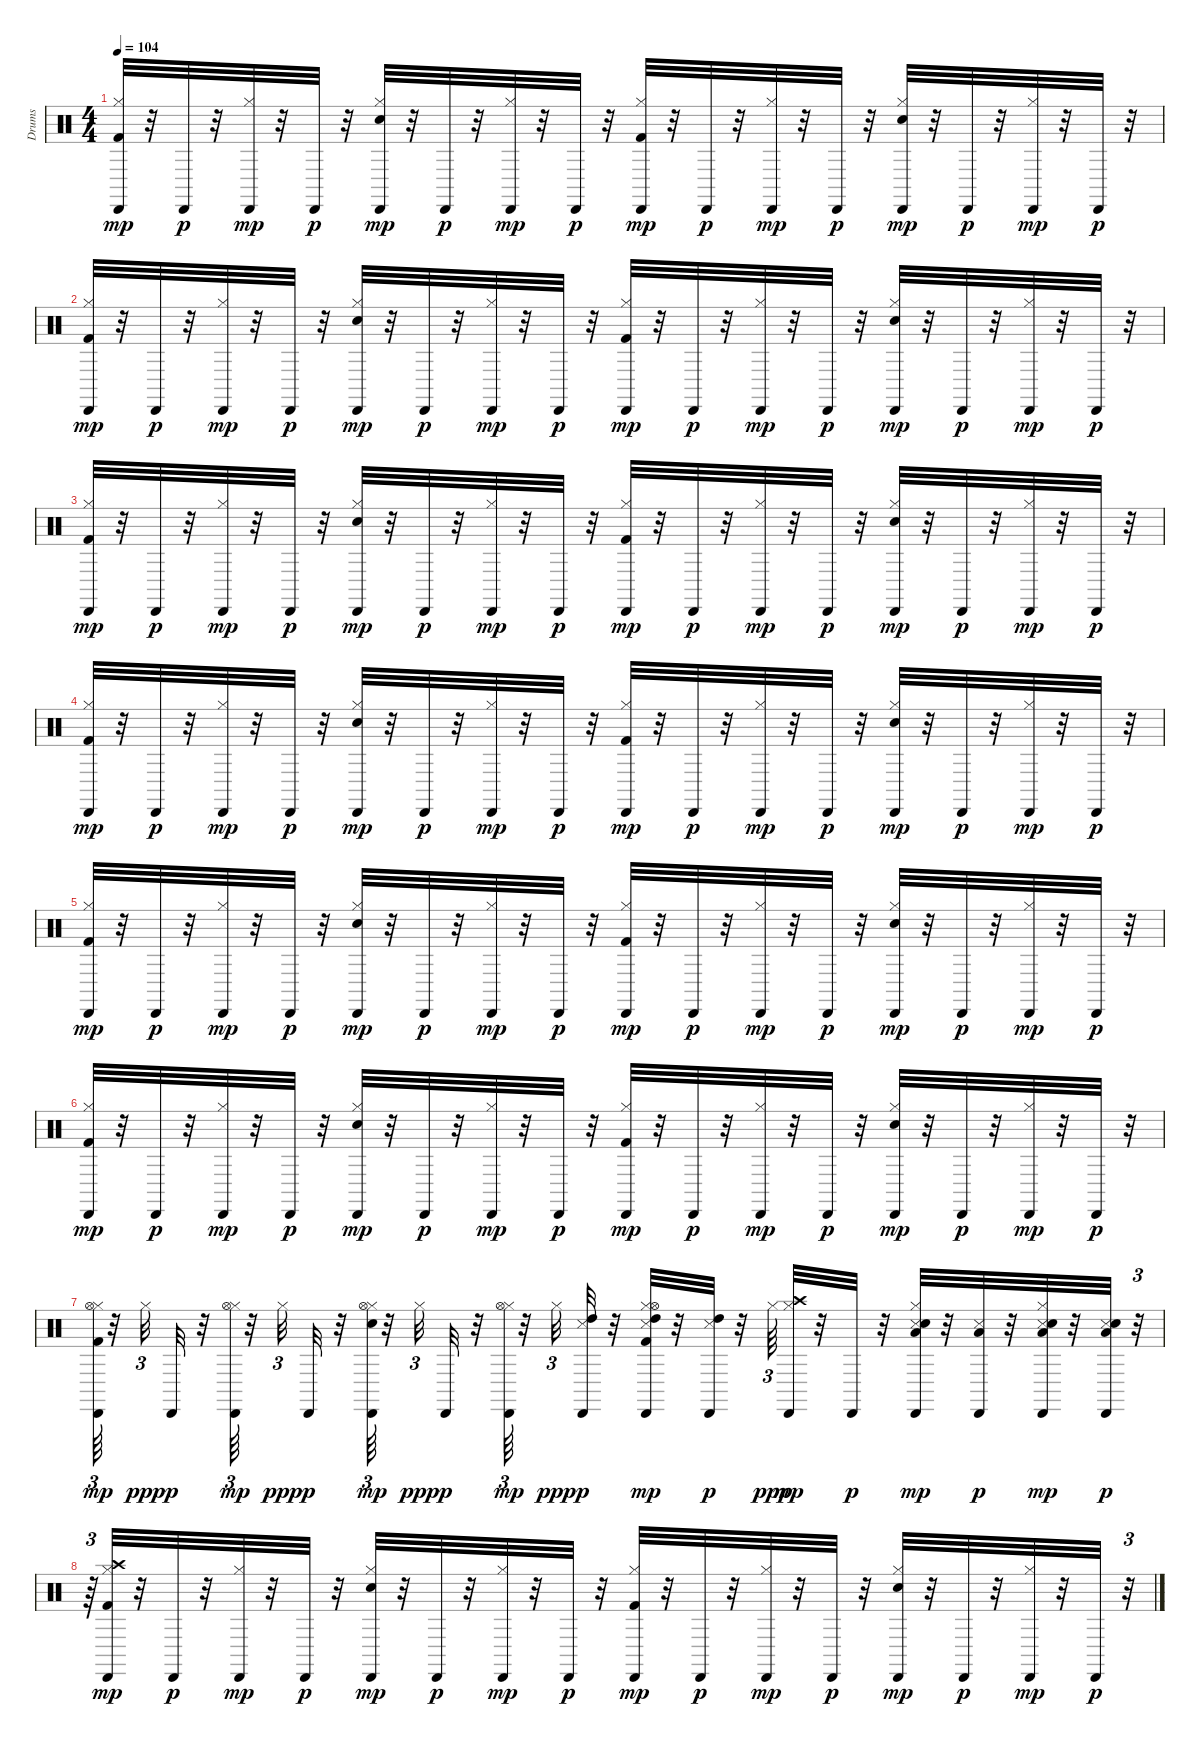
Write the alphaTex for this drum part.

\track ("Drums               " "Drums     ") {instrument percussion}
\staff {score}
\articulation defaults
\ts (4 4)
\tempo 104
\clef neutral
\ks c
("Kick (hit) 2" "Hi-Hat (closed)" "Cabasa (hit)").32{dy mp} r.32 "Cabasa (hit)".32{dy p} r.32 ("Hi-Hat (closed)" "Cabasa (hit)").32{dy mp} r.32 "Cabasa (hit)".32{dy p} r.32 ("Snare (hit) 2" "Hi-Hat (closed)" "Cabasa (hit)").32{dy mp} r.32 "Cabasa (hit)".32{dy p} r.32 ("Hi-Hat (closed)" "Cabasa (hit)").32{dy mp} r.32 "Cabasa (hit)".32{dy p} r.32 ("Kick (hit) 2" "Hi-Hat (closed)" "Cabasa (hit)").32{dy mp} r.32 "Cabasa (hit)".32{dy p} r.32 ("Hi-Hat (closed)" "Cabasa (hit)").32{dy mp} r.32 "Cabasa (hit)".32{dy p} r.32 ("Snare (hit) 2" "Hi-Hat (closed)" "Cabasa (hit)").32{dy mp} r.32 "Cabasa (hit)".32{dy p} r.32 ("Hi-Hat (closed)" "Cabasa (hit)").32{dy mp} r.32 "Cabasa (hit)".32{dy p} r.32 |
("Kick (hit) 2" "Hi-Hat (closed)" "Cabasa (hit)").32{dy mp} r.32 "Cabasa (hit)".32{dy p} r.32 ("Hi-Hat (closed)" "Cabasa (hit)").32{dy mp} r.32 "Cabasa (hit)".32{dy p} r.32 ("Snare (hit) 2" "Hi-Hat (closed)" "Cabasa (hit)").32{dy mp} r.32 "Cabasa (hit)".32{dy p} r.32 ("Hi-Hat (closed)" "Cabasa (hit)").32{dy mp} r.32 "Cabasa (hit)".32{dy p} r.32 ("Kick (hit) 2" "Hi-Hat (closed)" "Cabasa (hit)").32{dy mp} r.32 "Cabasa (hit)".32{dy p} r.32 ("Hi-Hat (closed)" "Cabasa (hit)").32{dy mp} r.32 "Cabasa (hit)".32{dy p} r.32 ("Snare (hit) 2" "Hi-Hat (closed)" "Cabasa (hit)").32{dy mp} r.32 "Cabasa (hit)".32{dy p} r.32 ("Hi-Hat (closed)" "Cabasa (hit)").32{dy mp} r.32 "Cabasa (hit)".32{dy p} r.32 |
("Kick (hit) 2" "Hi-Hat (closed)" "Cabasa (hit)").32{dy mp} r.32 "Cabasa (hit)".32{dy p} r.32 ("Hi-Hat (closed)" "Cabasa (hit)").32{dy mp} r.32 "Cabasa (hit)".32{dy p} r.32 ("Snare (hit) 2" "Hi-Hat (closed)" "Cabasa (hit)").32{dy mp} r.32 "Cabasa (hit)".32{dy p} r.32 ("Hi-Hat (closed)" "Cabasa (hit)").32{dy mp} r.32 "Cabasa (hit)".32{dy p} r.32 ("Kick (hit) 2" "Hi-Hat (closed)" "Cabasa (hit)").32{dy mp} r.32 "Cabasa (hit)".32{dy p} r.32 ("Hi-Hat (closed)" "Cabasa (hit)").32{dy mp} r.32 "Cabasa (hit)".32{dy p} r.32 ("Snare (hit) 2" "Hi-Hat (closed)" "Cabasa (hit)").32{dy mp} r.32 "Cabasa (hit)".32{dy p} r.32 ("Hi-Hat (closed)" "Cabasa (hit)").32{dy mp} r.32 "Cabasa (hit)".32{dy p} r.32 |
("Kick (hit) 2" "Hi-Hat (closed)" "Cabasa (hit)").32{dy mp} r.32 "Cabasa (hit)".32{dy p} r.32 ("Hi-Hat (closed)" "Cabasa (hit)").32{dy mp} r.32 "Cabasa (hit)".32{dy p} r.32 ("Snare (hit) 2" "Hi-Hat (closed)" "Cabasa (hit)").32{dy mp} r.32 "Cabasa (hit)".32{dy p} r.32 ("Hi-Hat (closed)" "Cabasa (hit)").32{dy mp} r.32 "Cabasa (hit)".32{dy p} r.32 ("Kick (hit) 2" "Hi-Hat (closed)" "Cabasa (hit)").32{dy mp} r.32 "Cabasa (hit)".32{dy p} r.32 ("Hi-Hat (closed)" "Cabasa (hit)").32{dy mp} r.32 "Cabasa (hit)".32{dy p} r.32 ("Snare (hit) 2" "Hi-Hat (closed)" "Cabasa (hit)").32{dy mp} r.32 "Cabasa (hit)".32{dy p} r.32 ("Hi-Hat (closed)" "Cabasa (hit)").32{dy mp} r.32 "Cabasa (hit)".32{dy p} r.32 |
("Kick (hit) 2" "Hi-Hat (closed)" "Cabasa (hit)").32{dy mp} r.32 "Cabasa (hit)".32{dy p} r.32 ("Hi-Hat (closed)" "Cabasa (hit)").32{dy mp} r.32 "Cabasa (hit)".32{dy p} r.32 ("Snare (hit) 2" "Hi-Hat (closed)" "Cabasa (hit)").32{dy mp} r.32 "Cabasa (hit)".32{dy p} r.32 ("Hi-Hat (closed)" "Cabasa (hit)").32{dy mp} r.32 "Cabasa (hit)".32{dy p} r.32 ("Kick (hit) 2" "Hi-Hat (closed)" "Cabasa (hit)").32{dy mp} r.32 "Cabasa (hit)".32{dy p} r.32 ("Hi-Hat (closed)" "Cabasa (hit)").32{dy mp} r.32 "Cabasa (hit)".32{dy p} r.32 ("Snare (hit) 2" "Hi-Hat (closed)" "Cabasa (hit)").32{dy mp} r.32 "Cabasa (hit)".32{dy p} r.32 ("Hi-Hat (closed)" "Cabasa (hit)").32{dy mp} r.32 "Cabasa (hit)".32{dy p} r.32 |
("Kick (hit) 2" "Hi-Hat (closed)" "Cabasa (hit)").32{dy mp} r.32 "Cabasa (hit)".32{dy p} r.32 ("Hi-Hat (closed)" "Cabasa (hit)").32{dy mp} r.32 "Cabasa (hit)".32{dy p} r.32 ("Snare (hit) 2" "Hi-Hat (closed)" "Cabasa (hit)").32{dy mp} r.32 "Cabasa (hit)".32{dy p} r.32 ("Hi-Hat (closed)" "Cabasa (hit)").32{dy mp} r.32 "Cabasa (hit)".32{dy p} r.32 ("Kick (hit) 2" "Hi-Hat (closed)" "Cabasa (hit)").32{dy mp} r.32 "Cabasa (hit)".32{dy p} r.32 ("Hi-Hat (closed)" "Cabasa (hit)").32{dy mp} r.32 "Cabasa (hit)".32{dy p} r.32 ("Snare (hit) 2" "Hi-Hat (closed)" "Cabasa (hit)").32{dy mp} r.32 "Cabasa (hit)".32{dy p} r.32 ("Hi-Hat (closed)" "Cabasa (hit)").32{dy mp} r.32 "Cabasa (hit)".32{dy p} r.32 |
("Kick (hit) 2" "Hi-Hat (closed)" "Hi-Hat (open)" "Cabasa (hit)").64{tu (3 2) dy mp} r.32 "Hi-Hat (closed)".32{tu (3 2) dy ppp} "Cabasa (hit)".32{dy p} r.32 ("Hi-Hat (closed)" "Hi-Hat (open)" "Cabasa (hit)").64{tu (3 2) dy mp} r.32 "Hi-Hat (closed)".32{tu (3 2) dy ppp} "Cabasa (hit)".32{dy p} r.32 ("Snare (hit) 2" "Hi-Hat (closed)" "Hi-Hat (open)" "Cabasa (hit)").64{tu (3 2) dy mp} r.32 "Hi-Hat (closed)".32{tu (3 2) dy ppp} "Cabasa (hit)".32{dy p} r.32 ("Hi-Hat (closed)" "Hi-Hat (open)" "Cabasa (hit)").64{tu (3 2) dy mp} r.32 "Hi-Hat (closed)".32{tu (3 2) dy ppp} ("Snare (side stick) 3" "High Tom (hit)" "Cabasa (hit)").32{dy p} r.32 ("Kick (hit) 2" "Snare (side stick) 3" "Hi-Hat (closed)" "Hi-Hat (open)" "High Tom (hit)" "Cabasa (hit)").32{dy mp} r.32 ("Snare (side stick) 3" "High Tom (hit)" "Cabasa (hit)").32{dy p} r.32 "Hi-Hat (closed)".64{tu (3 2) dy ppp} ("Hi-Hat (closed)" "Crash high (hit)" "Cabasa (hit)").32{dy mp} r.32 "Cabasa (hit)".32{dy p} r.32 ("Snare (side stick) 3" "Snare (hit) 2" "Hi-Hat (closed)" "Low Tom (hit)" "Cabasa (hit)").32{dy mp} r.32 ("Snare (side stick) 3" "Low Tom (hit)" "Cabasa (hit)").32{dy p} r.32 ("Snare (side stick) 3" "Snare (hit) 2" "Low Floor Tom (hit)" "Hi-Hat (closed)" "Cabasa (hit)").32{dy mp} r.32 ("Snare (side stick) 3" "Snare (hit) 2" "Low Floor Tom (hit)" "Cabasa (hit)").32{dy p} r.32{tu (3 2)} |
r.64{tu (3 2)} ("Kick (hit) 2" "Hi-Hat (closed)" "Crash high (hit)" "Cabasa (hit)").32{dy mp} r.32 "Cabasa (hit)".32{dy p} r.32 ("Hi-Hat (closed)" "Cabasa (hit)").32{dy mp} r.32 "Cabasa (hit)".32{dy p} r.32 ("Snare (hit) 2" "Hi-Hat (closed)" "Cabasa (hit)").32{dy mp} r.32 "Cabasa (hit)".32{dy p} r.32 ("Hi-Hat (closed)" "Cabasa (hit)").32{dy mp} r.32 "Cabasa (hit)".32{dy p} r.32 ("Kick (hit) 2" "Hi-Hat (closed)" "Cabasa (hit)").32{dy mp} r.32 "Cabasa (hit)".32{dy p} r.32 ("Hi-Hat (closed)" "Cabasa (hit)").32{dy mp} r.32 "Cabasa (hit)".32{dy p} r.32 ("Snare (hit) 2" "Hi-Hat (closed)" "Cabasa (hit)").32{dy mp} r.32 "Cabasa (hit)".32{dy p} r.32 ("Hi-Hat (closed)" "Cabasa (hit)").32{dy mp} r.32 "Cabasa (hit)".32{dy p} r.32{tu (3 2)}
